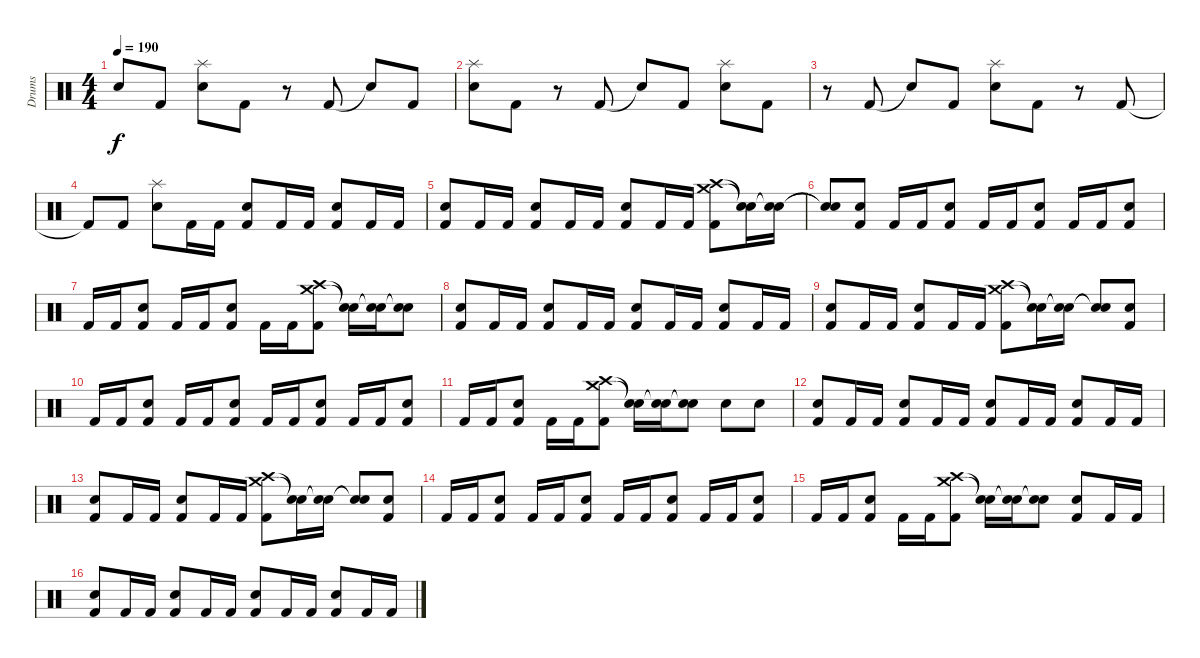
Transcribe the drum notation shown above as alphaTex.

\track ("Drums" "Drums") {instrument percussion}
\staff {score}
\articulation defaults
\ts (4 4)
\tempo 190
\clef neutral
\ks c "Snare (hit)"{t}.8{dy f} "Kick (hit) 2".8
("Splash (hit)" "Snare (hit) 2").8 "Kick (hit) 2".8 r.8 "Kick (hit) 2".8 "Snare (hit)"{t}.8 "Kick (hit) 2".8 |
("Splash (hit)" "Snare (hit) 2").8 "Kick (hit) 2".8 r.8 "Kick (hit) 2".8 "Snare (hit)"{t}.8 "Kick (hit) 2".8 ("Splash (hit)" "Snare (hit) 2").8 "Kick (hit) 2".8 |
r.8 "Kick (hit) 2".8 "Snare (hit)"{t}.8 "Kick (hit) 2".8 ("Splash (hit)" "Snare (hit) 2").8 "Kick (hit) 2".8 r.8 "Kick (hit) 2".8 |
"Kick (hit) 2"{t}.8 "Kick (hit) 2".8 ("Splash (hit)" "Snare (hit) 2").8 "Kick (hit) 2".16 "Kick (hit) 2".16 ("Snare (hit) 2" "Kick (hit) 2").8 "Kick (hit) 2".16 "Kick (hit) 2".16 ("Snare (hit) 2" "Kick (hit) 2").8 "Kick (hit) 2".16 "Kick (hit) 2".16 |
("Snare (hit) 2" "Kick (hit) 2").8 "Kick (hit) 2".16 "Kick (hit) 2".16 ("Snare (hit) 2" "Kick (hit) 2").8 "Kick (hit) 2".16 "Kick (hit) 2".16 ("Snare (hit) 2" "Kick (hit) 2").8 "Kick (hit) 2".16 "Kick (hit) 2".16 ("Crash medium (hit)" "Crash high (hit)" "Kick (hit) 2").8 ("Snare (hit)"{t} "Snare (hit)"{t}).16 ("Snare (hit)"{t} "Snare (hit)"{t}).16 |
("Snare (hit)"{t} "Snare (hit)"{t}).8 ("Snare (hit) 2" "Kick (hit) 2").8 "Kick (hit) 2".16 "Kick (hit) 2".16 ("Snare (hit) 2" "Kick (hit) 2").8 "Kick (hit) 2".16 "Kick (hit) 2".16 ("Snare (hit) 2" "Kick (hit) 2").8 "Kick (hit) 2".16 "Kick (hit) 2".16 ("Snare (hit) 2" "Kick (hit) 2").8 |
"Kick (hit) 2".16 "Kick (hit) 2".16 ("Snare (hit) 2" "Kick (hit) 2").8 "Kick (hit) 2".16 "Kick (hit) 2".16 ("Snare (hit) 2" "Kick (hit) 2").8 "Kick (hit) 2".16 "Kick (hit) 2".16 ("Crash medium (hit)" "Crash high (hit)" "Kick (hit) 2").8 ("Snare (hit)"{t} "Snare (hit)"{t}).16 ("Snare (hit)"{t} "Snare (hit)"{t}).16 ("Snare (hit)"{t} "Snare (hit)"{t}).8 |
("Snare (hit) 2" "Kick (hit) 2").8 "Kick (hit) 2".16 "Kick (hit) 2".16 ("Snare (hit) 2" "Kick (hit) 2").8 "Kick (hit) 2".16 "Kick (hit) 2".16 ("Snare (hit) 2" "Kick (hit) 2").8 "Kick (hit) 2".16 "Kick (hit) 2".16 ("Snare (hit) 2" "Kick (hit) 2").8 "Kick (hit) 2".16 "Kick (hit) 2".16 |
("Snare (hit) 2" "Kick (hit) 2").8 "Kick (hit) 2".16 "Kick (hit) 2".16 ("Snare (hit) 2" "Kick (hit) 2").8 "Kick (hit) 2".16 "Kick (hit) 2".16 ("Crash medium (hit)" "Crash high (hit)" "Kick (hit) 2").8 ("Snare (hit)"{t} "Snare (hit)"{t}).16 ("Snare (hit)"{t} "Snare (hit)"{t}).16 ("Snare (hit)"{t} "Snare (hit) 2"{t}).8 ("Snare (hit) 2" "Kick (hit) 2").8 |
"Kick (hit) 2".16 "Kick (hit) 2".16 ("Snare (hit) 2" "Kick (hit) 2").8 "Kick (hit) 2".16 "Kick (hit) 2".16 ("Snare (hit) 2" "Kick (hit) 2").8 "Kick (hit) 2".16 "Kick (hit) 2".16 ("Snare (hit) 2" "Kick (hit) 2").8 "Kick (hit) 2".16 "Kick (hit) 2".16 ("Snare (hit) 2" "Kick (hit) 2").8 |
"Kick (hit) 2".16 "Kick (hit) 2".16 ("Snare (hit) 2" "Kick (hit) 2").8 "Kick (hit) 2".16 "Kick (hit) 2".16 ("Crash medium (hit)" "Crash high (hit)" "Kick (hit) 2").8 ("Snare (hit)"{t} "Snare (hit)"{t}).16 ("Snare (hit)"{t} "Snare (hit)"{t}).16 ("Snare (hit)"{t} "Snare (hit)"{t}).8 "Snare (hit) 2".8 "Snare (hit) 2".8 |
("Snare (hit) 2" "Kick (hit) 2").8 "Kick (hit) 2".16 "Kick (hit) 2".16 ("Snare (hit) 2" "Kick (hit) 2").8 "Kick (hit) 2".16 "Kick (hit) 2".16 ("Snare (hit) 2" "Kick (hit) 2").8 "Kick (hit) 2".16 "Kick (hit) 2".16 ("Snare (hit) 2" "Kick (hit) 2").8 "Kick (hit) 2".16 "Kick (hit) 2".16 |
("Snare (hit) 2" "Kick (hit) 2").8 "Kick (hit) 2".16 "Kick (hit) 2".16 ("Snare (hit) 2" "Kick (hit) 2").8 "Kick (hit) 2".16 "Kick (hit) 2".16 ("Crash medium (hit)" "Crash high (hit)" "Kick (hit) 2").8 ("Snare (hit)"{t} "Snare (hit)"{t}).16 ("Snare (hit)"{t} "Snare (hit)"{t}).16 ("Snare (hit)"{t} "Snare (hit)"{t}).8 ("Snare (hit) 2" "Kick (hit) 2").8 |
"Kick (hit) 2".16 "Kick (hit) 2".16 ("Snare (hit) 2" "Kick (hit) 2").8 "Kick (hit) 2".16 "Kick (hit) 2".16 ("Snare (hit) 2" "Kick (hit) 2").8 "Kick (hit) 2".16 "Kick (hit) 2".16 ("Snare (hit) 2" "Kick (hit) 2").8 "Kick (hit) 2".16 "Kick (hit) 2".16 ("Snare (hit) 2" "Kick (hit) 2").8 |
"Kick (hit) 2".16 "Kick (hit) 2".16 ("Snare (hit) 2" "Kick (hit) 2").8 "Kick (hit) 2".16 "Kick (hit) 2".16 ("Crash medium (hit)" "Crash high (hit)" "Kick (hit) 2").8 ("Snare (hit)"{t} "Snare (hit)"{t}).16 ("Snare (hit)"{t} "Snare (hit)"{t}).16 ("Snare (hit)"{t} "Snare (hit) 2"{t}).8 ("Snare (hit) 2" "Kick (hit) 2").8 "Kick (hit) 2".16 "Kick (hit) 2".16 |
("Snare (hit) 2" "Kick (hit) 2").8 "Kick (hit) 2".16 "Kick (hit) 2".16 ("Snare (hit) 2" "Kick (hit) 2").8 "Kick (hit) 2".16 "Kick (hit) 2".16 ("Snare (hit) 2" "Kick (hit) 2").8 "Kick (hit) 2".16 "Kick (hit) 2".16 ("Snare (hit) 2" "Kick (hit) 2").8 "Kick (hit) 2".16 "Kick (hit) 2".16
